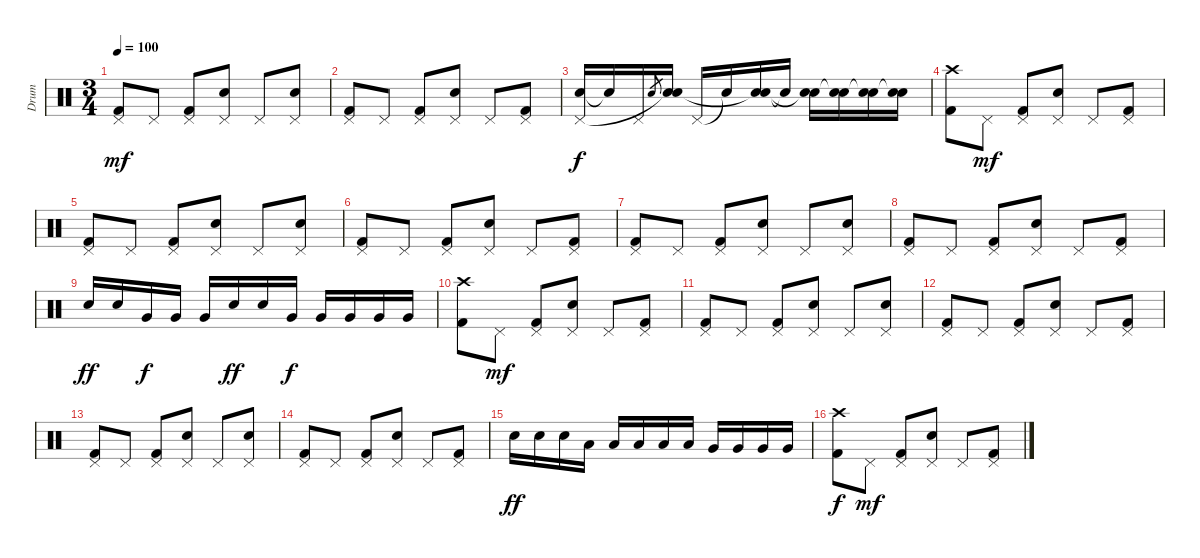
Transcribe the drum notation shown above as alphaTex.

\track ("Drum" "Drum") {instrument percussion}
\staff {score}
\articulation defaults
\ts (3 4)
\tempo 100
\clef neutral
\ks c
("Kick (hit) 2" "Pedal Hi-Hat (hit)").8{dy mf} "Pedal Hi-Hat (hit)".8 ("Kick (hit) 2" "Pedal Hi-Hat (hit)").8 ("Snare (hit) 2" "Pedal Hi-Hat (hit)").8 "Pedal Hi-Hat (hit)".8 ("Snare (hit) 2" "Pedal Hi-Hat (hit)").8 |
("Kick (hit) 2" "Pedal Hi-Hat (hit)").8 "Pedal Hi-Hat (hit)".8 ("Kick (hit) 2" "Pedal Hi-Hat (hit)").8 ("Snare (hit) 2" "Pedal Hi-Hat (hit)").8 "Pedal Hi-Hat (hit)".8 ("Kick (hit) 2" "Pedal Hi-Hat (hit)").8 |
("Snare (hit) 2" "Pedal Hi-Hat (hit)").16{dy f} "Snare (hit)"{t}.16 "Pedal Hi-Hat (hit)".16 "Snare (hit) 2".8{gr} ("Snare (hit) 2" "Snare (hit)"{t}).16 "Pedal Hi-Hat (hit)".16 "Snare (hit)"{t}.16 ("Snare (hit) 2" "Snare (hit)"{t}).16 "Snare (hit)"{t}.16 ("Snare (hit) 2" "Snare (hit)"{t}).16 ("Snare (hit) 2" "Snare (hit)"{t}).16 ("Snare (hit) 2" "Snare (hit)"{t}).16 ("Snare (hit) 2" "Snare (hit)"{t}).16 |
("Kick (hit) 2" "Crash high (hit)").8 "Pedal Hi-Hat (hit)".8{dy mf} ("Kick (hit) 2" "Pedal Hi-Hat (hit)").8 ("Snare (hit) 2" "Pedal Hi-Hat (hit)").8 "Pedal Hi-Hat (hit)".8 ("Kick (hit) 2" "Pedal Hi-Hat (hit)").8 |
("Kick (hit) 2" "Pedal Hi-Hat (hit)").8 "Pedal Hi-Hat (hit)".8 ("Kick (hit) 2" "Pedal Hi-Hat (hit)").8 ("Snare (hit) 2" "Pedal Hi-Hat (hit)").8 "Pedal Hi-Hat (hit)".8 ("Snare (hit) 2" "Pedal Hi-Hat (hit)").8 |
("Kick (hit) 2" "Pedal Hi-Hat (hit)").8 "Pedal Hi-Hat (hit)".8 ("Kick (hit) 2" "Pedal Hi-Hat (hit)").8 ("Snare (hit) 2" "Pedal Hi-Hat (hit)").8 "Pedal Hi-Hat (hit)".8 ("Kick (hit) 2" "Pedal Hi-Hat (hit)").8 |
("Kick (hit) 2" "Pedal Hi-Hat (hit)").8 "Pedal Hi-Hat (hit)".8 ("Kick (hit) 2" "Pedal Hi-Hat (hit)").8 ("Snare (hit) 2" "Pedal Hi-Hat (hit)").8 "Pedal Hi-Hat (hit)".8 ("Snare (hit) 2" "Pedal Hi-Hat (hit)").8 |
("Kick (hit) 2" "Pedal Hi-Hat (hit)").8 "Pedal Hi-Hat (hit)".8 ("Kick (hit) 2" "Pedal Hi-Hat (hit)").8 ("Snare (hit) 2" "Pedal Hi-Hat (hit)").8 "Pedal Hi-Hat (hit)".8 ("Kick (hit) 2" "Pedal Hi-Hat (hit)").8 |
"Snare (hit) 2".16{dy ff} "Snare (hit) 2".16 "Very Low Tom (hit)".16{dy f} "Very Low Tom (hit)".16 "Very Low Tom (hit)".16 "Snare (hit) 2".16{dy ff} "Snare (hit) 2".16 "Very Low Tom (hit)".16{dy f} "Very Low Tom (hit)".16 "Very Low Tom (hit)".16 "Very Low Tom (hit)".16 "Very Low Tom (hit)".16 |
("Kick (hit) 2" "Crash high (hit)").8 "Pedal Hi-Hat (hit)".8{dy mf} ("Kick (hit) 2" "Pedal Hi-Hat (hit)").8 ("Snare (hit) 2" "Pedal Hi-Hat (hit)").8 "Pedal Hi-Hat (hit)".8 ("Kick (hit) 2" "Pedal Hi-Hat (hit)").8 |
("Kick (hit) 2" "Pedal Hi-Hat (hit)").8 "Pedal Hi-Hat (hit)".8 ("Kick (hit) 2" "Pedal Hi-Hat (hit)").8 ("Snare (hit) 2" "Pedal Hi-Hat (hit)").8 "Pedal Hi-Hat (hit)".8 ("Snare (hit) 2" "Pedal Hi-Hat (hit)").8 |
("Kick (hit) 2" "Pedal Hi-Hat (hit)").8 "Pedal Hi-Hat (hit)".8 ("Kick (hit) 2" "Pedal Hi-Hat (hit)").8 ("Snare (hit) 2" "Pedal Hi-Hat (hit)").8 "Pedal Hi-Hat (hit)".8 ("Kick (hit) 2" "Pedal Hi-Hat (hit)").8 |
("Kick (hit) 2" "Pedal Hi-Hat (hit)").8 "Pedal Hi-Hat (hit)".8 ("Kick (hit) 2" "Pedal Hi-Hat (hit)").8 ("Snare (hit) 2" "Pedal Hi-Hat (hit)").8 "Pedal Hi-Hat (hit)".8 ("Snare (hit) 2" "Pedal Hi-Hat (hit)").8 |
("Kick (hit) 2" "Pedal Hi-Hat (hit)").8 "Pedal Hi-Hat (hit)".8 ("Kick (hit) 2" "Pedal Hi-Hat (hit)").8 ("Snare (hit) 2" "Pedal Hi-Hat (hit)").8 "Pedal Hi-Hat (hit)".8 ("Kick (hit) 2" "Pedal Hi-Hat (hit)").8 |
"Snare (hit) 2".16{dy ff} "Snare (hit) 2".16 "Snare (hit) 2".16 "Low Tom (hit)".16 "Low Tom (hit)".16 "Low Tom (hit)".16 "Low Tom (hit)".16 "Low Tom (hit)".16 "Very Low Tom (hit)".16 "Very Low Tom (hit)".16 "Very Low Tom (hit)".16 "Very Low Tom (hit)".16 |
("Kick (hit) 2" "Crash high (hit)").8{dy f} "Pedal Hi-Hat (hit)".8{dy mf} ("Kick (hit) 2" "Pedal Hi-Hat (hit)").8 ("Snare (hit) 2" "Pedal Hi-Hat (hit)").8 "Pedal Hi-Hat (hit)".8 ("Kick (hit) 2" "Pedal Hi-Hat (hit)").8
